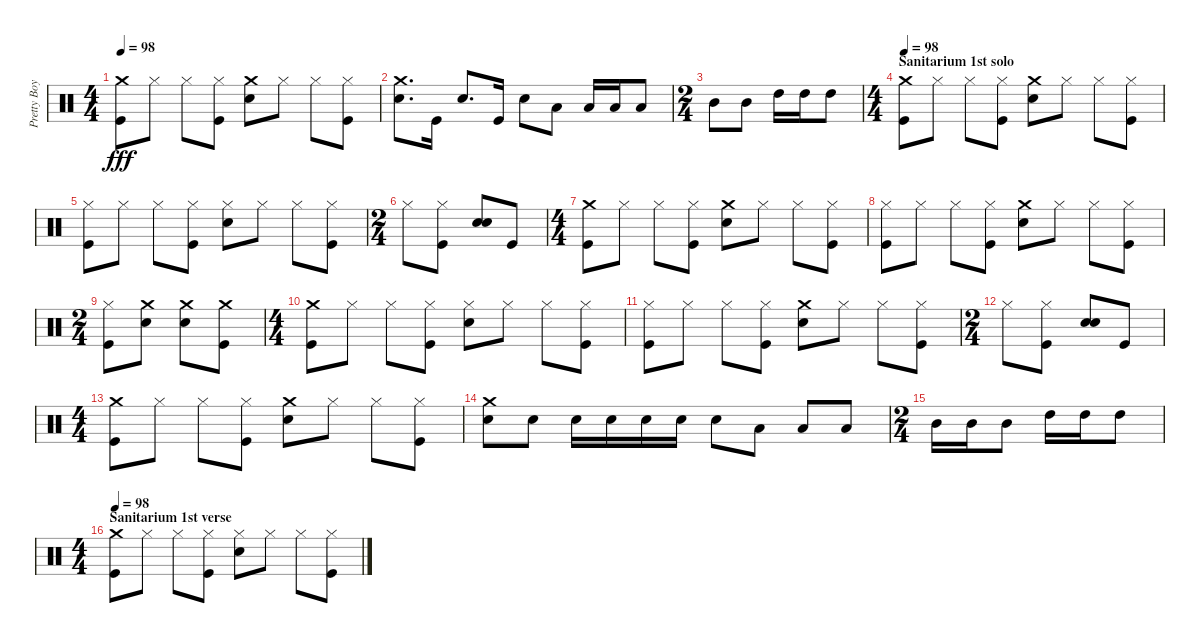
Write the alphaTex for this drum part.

\track ("Pretty Boy Geoff (Lars Drums)" "Pretty Boy") {instrument percussion}
\staff {score}
\articulation defaults
\ts (4 4)
\tempo 98
\clef neutral
\ks c
("Crash medium (hit)" "Kick (hit)").8{dy fff} "Hi-Hat (closed)".8 "Hi-Hat (closed)".8 ("Hi-Hat (closed)" "Kick (hit)").8 ("Crash medium (hit)" "Snare (hit) 2").8 "Hi-Hat (closed)".8 "Hi-Hat (closed)".8 ("Hi-Hat (closed)" "Kick (hit)").8 |
("Snare (hit) 2" "Crash medium (hit)").8{d} "Kick (hit)".16 "Snare (hit) 2".8{d} "Kick (hit)".16 "Snare (hit) 2".8 "Low Tom (hit)".8 "Low Tom (hit)".16 "Low Tom (hit)".16 "Low Tom (hit)".8 |
\ts (2 4)
"Mid Tom (hit)".8 "Mid Tom (hit)".8 "High Tom (hit)".16 "High Tom (hit)".16 "High Tom (hit)".8 |
\ts (4 4)
\section ("" "Sanitarium 1st solo")
\tempo 98
("Crash medium (hit)" "Kick (hit)").8 "Hi-Hat (closed)".8 "Hi-Hat (closed)".8 ("Hi-Hat (closed)" "Kick (hit)").8 ("Crash medium (hit)" "Snare (hit) 2").8 "Hi-Hat (closed)".8 "Hi-Hat (closed)".8 ("Hi-Hat (closed)" "Kick (hit)").8 |
("Hi-Hat (closed)" "Kick (hit)").8 "Hi-Hat (closed)".8 "Hi-Hat (closed)".8 ("Hi-Hat (closed)" "Kick (hit)").8 ("Hi-Hat (closed)" "Snare (hit) 2").8 "Hi-Hat (closed)".8 "Hi-Hat (closed)".8 ("Hi-Hat (closed)" "Kick (hit)").8 |
\ts (2 4)
"Hi-Hat (closed)".8 ("Kick (hit)" "Hi-Hat (closed)").8 ("Snare (hit) 2" "Snare (hit) 2").8 "Kick (hit)".8 |
\ts (4 4)
("Crash medium (hit)" "Kick (hit)").8 "Hi-Hat (closed)".8 "Hi-Hat (closed)".8 ("Hi-Hat (closed)" "Kick (hit)").8 ("Crash medium (hit)" "Snare (hit) 2").8 "Hi-Hat (closed)".8 "Hi-Hat (closed)".8 ("Hi-Hat (closed)" "Kick (hit)").8 |
("Hi-Hat (closed)" "Kick (hit)").8 "Hi-Hat (closed)".8 "Hi-Hat (closed)".8 ("Hi-Hat (closed)" "Kick (hit)").8 ("Crash medium (hit)" "Snare (hit) 2").8 "Hi-Hat (closed)".8 "Hi-Hat (closed)".8 ("Hi-Hat (closed)" "Kick (hit)").8 |
\ts (2 4)
("Hi-Hat (closed)" "Kick (hit)").8 ("Crash medium (hit)" "Snare (hit) 2").8 ("Crash medium (hit)" "Snare (hit) 2").8 ("Crash medium (hit)" "Kick (hit)").8 |
\ts (4 4)
("Kick (hit)" "Crash medium (hit)").8 "Hi-Hat (closed)".8 "Hi-Hat (closed)".8 ("Kick (hit)" "Hi-Hat (closed)").8 ("Snare (hit) 2" "Hi-Hat (closed)").8 "Hi-Hat (closed)".8 "Hi-Hat (closed)".8 ("Kick (hit)" "Hi-Hat (closed)").8 |
("Hi-Hat (closed)" "Kick (hit)").8 "Hi-Hat (closed)".8 "Hi-Hat (closed)".8 ("Kick (hit)" "Hi-Hat (closed)").8 ("Crash medium (hit)" "Snare (hit) 2").8 "Hi-Hat (closed)".8 "Hi-Hat (closed)".8 ("Kick (hit)" "Hi-Hat (closed)").8 |
\ts (2 4)
"Hi-Hat (closed)".8 ("Kick (hit)" "Hi-Hat (closed)").8 ("Snare (hit) 2" "Snare (hit) 2").8 "Kick (hit)".8 |
\ts (4 4)
("Crash medium (hit)" "Kick (hit)").8 "Hi-Hat (closed)".8 "Hi-Hat (closed)".8 ("Hi-Hat (closed)" "Kick (hit)").8 ("Crash medium (hit)" "Snare (hit) 2").8 "Hi-Hat (closed)".8 "Hi-Hat (closed)".8 ("Hi-Hat (closed)" "Kick (hit)").8 |
("Snare (hit) 2" "Crash medium (hit)").8 "Snare (hit) 2".8 "Snare (hit) 2".16 "Snare (hit) 2".16 "Snare (hit) 2".16 "Snare (hit) 2".16 "Snare (hit) 2".8 "Low Tom (hit)".8 "Low Tom (hit)".8 "Low Tom (hit)".8 |
\ts (2 4)
"Mid Tom (hit)".16 "Mid Tom (hit)".16 "Mid Tom (hit)".8 "High Tom (hit)".16 "High Tom (hit)".16 "High Tom (hit)".8 |
\ts (4 4)
\section ("" "Sanitarium 1st verse")
\tempo 98
("Kick (hit)" "Crash medium (hit)").8 "Hi-Hat (closed)".8 "Hi-Hat (closed)".8 ("Kick (hit)" "Hi-Hat (closed)").8 ("Snare (hit) 2" "Hi-Hat (closed)").8 "Hi-Hat (closed)".8 "Hi-Hat (closed)".8 ("Kick (hit)" "Hi-Hat (closed)").8
